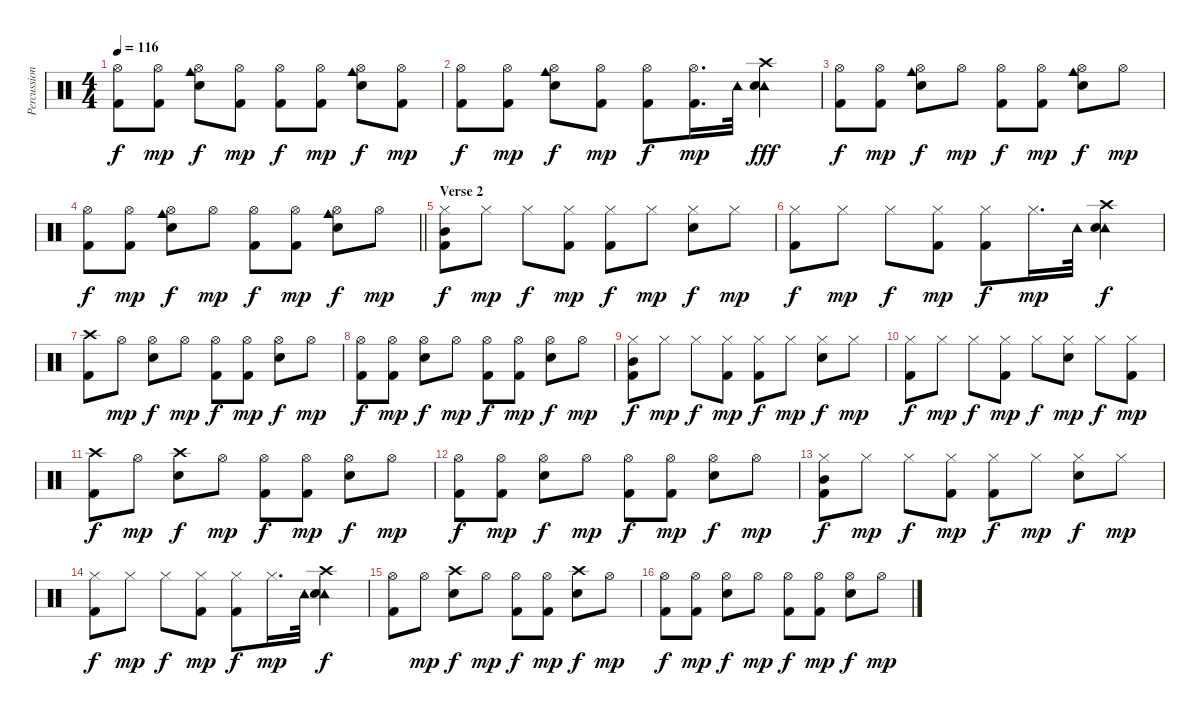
\track ("Percussion (Peter)" "Percussion") {instrument percussion}
\staff {score}
\articulation defaults
\ts (4 4)
\tempo 116
\clef neutral
\ks c
("Hi-Hat (open)" "Kick (hit) 2").8{dy f} ("Hi-Hat (open)" "Kick (hit) 2").8{dy mp} ("Cowbell medium (hit)" "Hi-Hat (open)" "Snare (hit) 2").8{dy f} ("Hi-Hat (open)" "Kick (hit) 2").8{dy mp} ("Hi-Hat (open)" "Kick (hit) 2").8{dy f} ("Hi-Hat (open)" "Kick (hit) 2").8{dy mp} ("Cowbell medium (hit)" "Hi-Hat (open)" "Snare (hit) 2").8{dy f} ("Hi-Hat (open)" "Kick (hit) 2").8{dy mp} |
("Hi-Hat (open)" "Kick (hit) 2").8{dy f} ("Hi-Hat (open)" "Kick (hit) 2").8{dy mp} ("Cowbell medium (hit)" "Hi-Hat (open)" "Snare (hit) 2").8{dy f} ("Hi-Hat (open)" "Kick (hit) 2").8{dy mp} ("Hi-Hat (open)" "Kick (hit) 2").8{dy f} ("Hi-Hat (open)" "Kick (hit) 2").16{d dy mp} "Tambourine (hit)".32 ("Crash high (hit)" "Tambourine (hit)" "Snare (hit) 2").4{dy fff} |
("Hi-Hat (open)" "Kick (hit) 2").8{dy f} ("Hi-Hat (open)" "Kick (hit) 2").8{dy mp} ("Cowbell medium (hit)" "Hi-Hat (open)" "Snare (hit) 2").8{dy f} "Hi-Hat (open)".8{dy mp} ("Hi-Hat (open)" "Kick (hit) 2").8{dy f} ("Hi-Hat (open)" "Kick (hit) 2").8{dy mp} ("Cowbell medium (hit)" "Hi-Hat (open)" "Snare (hit) 2").8{dy f} "Hi-Hat (open)".8{dy mp} |
\barLineRight lightlight
("Hi-Hat (open)" "Kick (hit) 2").8{dy f} ("Hi-Hat (open)" "Kick (hit) 2").8{dy mp} ("Cowbell medium (hit)" "Hi-Hat (open)" "Snare (hit) 2").8{dy f} "Hi-Hat (open)".8{dy mp} ("Hi-Hat (open)" "Kick (hit) 2").8{dy f} ("Hi-Hat (open)" "Kick (hit) 2").8{dy mp} ("Cowbell medium (hit)" "Hi-Hat (open)" "Snare (hit) 2").8{dy f} "Hi-Hat (open)".8{dy mp} |
\section ("" "Verse 2")
("Hi-Hat (closed)" "Mid Tom (hit)" "Kick (hit) 2").8{dy f} "Hi-Hat (closed)".8{dy mp} "Hi-Hat (closed)".8{dy f} ("Hi-Hat (closed)" "Kick (hit) 2").8{dy mp} ("Hi-Hat (closed)" "Kick (hit) 2").8{dy f} "Hi-Hat (closed)".8{dy mp} ("Hi-Hat (closed)" "Snare (hit) 2").8{dy f} "Hi-Hat (closed)".8{dy mp} |
("Hi-Hat (closed)" "Kick (hit) 2").8{dy f} "Hi-Hat (closed)".8{dy mp} "Hi-Hat (closed)".8{dy f} ("Hi-Hat (closed)" "Kick (hit) 2").8{dy mp} ("Hi-Hat (closed)" "Kick (hit) 2").8{dy f} "Hi-Hat (closed)".16{d dy mp} "Tambourine (hit)".32 ("Crash high (hit)" "Tambourine (hit)" "Snare (hit) 2").4{dy f} |
("Crash high (hit)" "Kick (hit) 2").8 "Hi-Hat (open)".8{dy mp} ("Hi-Hat (open)" "Snare (hit) 2").8{dy f} "Hi-Hat (open)".8{dy mp} ("Hi-Hat (open)" "Kick (hit) 2").8{dy f} ("Hi-Hat (open)" "Kick (hit) 2").8{dy mp} ("Hi-Hat (open)" "Snare (hit) 2").8{dy f} "Hi-Hat (open)".8{dy mp} |
("Hi-Hat (open)" "Kick (hit) 2").8{dy f} ("Hi-Hat (open)" "Kick (hit) 2").8{dy mp} ("Hi-Hat (open)" "Snare (hit) 2").8{dy f} "Hi-Hat (open)".8{dy mp} ("Hi-Hat (open)" "Kick (hit) 2").8{dy f} ("Hi-Hat (open)" "Kick (hit) 2").8{dy mp} ("Hi-Hat (open)" "Snare (hit) 2").8{dy f} "Hi-Hat (open)".8{dy mp} |
("Hi-Hat (closed)" "Mid Tom (hit)" "Kick (hit) 2").8{dy f} "Hi-Hat (closed)".8{dy mp} "Hi-Hat (closed)".8{dy f} ("Hi-Hat (closed)" "Kick (hit) 2").8{dy mp} ("Hi-Hat (closed)" "Kick (hit) 2").8{dy f} "Hi-Hat (closed)".8{dy mp} ("Hi-Hat (closed)" "Snare (hit) 2").8{dy f} "Hi-Hat (closed)".8{dy mp} |
("Hi-Hat (closed)" "Kick (hit) 2").8{dy f} "Hi-Hat (closed)".8{dy mp} "Hi-Hat (closed)".8{dy f} ("Hi-Hat (closed)" "Kick (hit) 2").8{dy mp} "Hi-Hat (closed)".8{dy f} ("Hi-Hat (closed)" "Snare (hit) 2").8{dy mp} "Hi-Hat (closed)".8{dy f} ("Hi-Hat (closed)" "Kick (hit) 2").8{dy mp} |
("Crash high (hit)" "Kick (hit) 2").8{dy f} "Hi-Hat (open)".8{dy mp} ("Crash high (hit)" "Snare (hit) 2").8{dy f} "Hi-Hat (open)".8{dy mp} ("Hi-Hat (open)" "Kick (hit) 2").8{dy f} ("Hi-Hat (open)" "Kick (hit) 2").8{dy mp} ("Hi-Hat (open)" "Snare (hit) 2").8{dy f} "Hi-Hat (open)".8{dy mp} |
("Hi-Hat (open)" "Kick (hit) 2").8{dy f} ("Hi-Hat (open)" "Kick (hit) 2").8{dy mp} ("Hi-Hat (open)" "Snare (hit) 2").8{dy f} "Hi-Hat (open)".8{dy mp} ("Hi-Hat (open)" "Kick (hit) 2").8{dy f} ("Hi-Hat (open)" "Kick (hit) 2").8{dy mp} ("Hi-Hat (open)" "Snare (hit) 2").8{dy f} "Hi-Hat (open)".8{dy mp} |
("Hi-Hat (closed)" "Mid Tom (hit)" "Kick (hit) 2").8{dy f} "Hi-Hat (closed)".8{dy mp} "Hi-Hat (closed)".8{dy f} ("Hi-Hat (closed)" "Kick (hit) 2").8{dy mp} ("Hi-Hat (closed)" "Kick (hit) 2").8{dy f} "Hi-Hat (closed)".8{dy mp} ("Hi-Hat (closed)" "Snare (hit) 2").8{dy f} "Hi-Hat (closed)".8{dy mp} |
("Hi-Hat (closed)" "Kick (hit) 2").8{dy f} "Hi-Hat (closed)".8{dy mp} "Hi-Hat (closed)".8{dy f} ("Hi-Hat (closed)" "Kick (hit) 2").8{dy mp} ("Hi-Hat (closed)" "Kick (hit) 2").8{dy f} "Hi-Hat (closed)".16{d dy mp} "Tambourine (hit)".32 ("Crash high (hit)" "Tambourine (hit)" "Snare (hit) 2").4{dy f} |
("Hi-Hat (open)" "Kick (hit) 2").8 "Hi-Hat (open)".8{dy mp} ("Crash high (hit)" "Snare (hit) 2").8{dy f} "Hi-Hat (open)".8{dy mp} ("Hi-Hat (open)" "Kick (hit) 2").8{dy f} ("Hi-Hat (open)" "Kick (hit) 2").8{dy mp} ("Crash high (hit)" "Snare (hit) 2").8{dy f} "Hi-Hat (open)".8{dy mp} |
("Hi-Hat (open)" "Kick (hit) 2").8{dy f} ("Hi-Hat (open)" "Kick (hit) 2").8{dy mp} ("Hi-Hat (open)" "Snare (hit) 2").8{dy f} "Hi-Hat (open)".8{dy mp} ("Hi-Hat (open)" "Kick (hit) 2").8{dy f} ("Hi-Hat (open)" "Kick (hit) 2").8{dy mp} ("Hi-Hat (open)" "Snare (hit) 2").8{dy f} "Hi-Hat (open)".8{dy mp}
